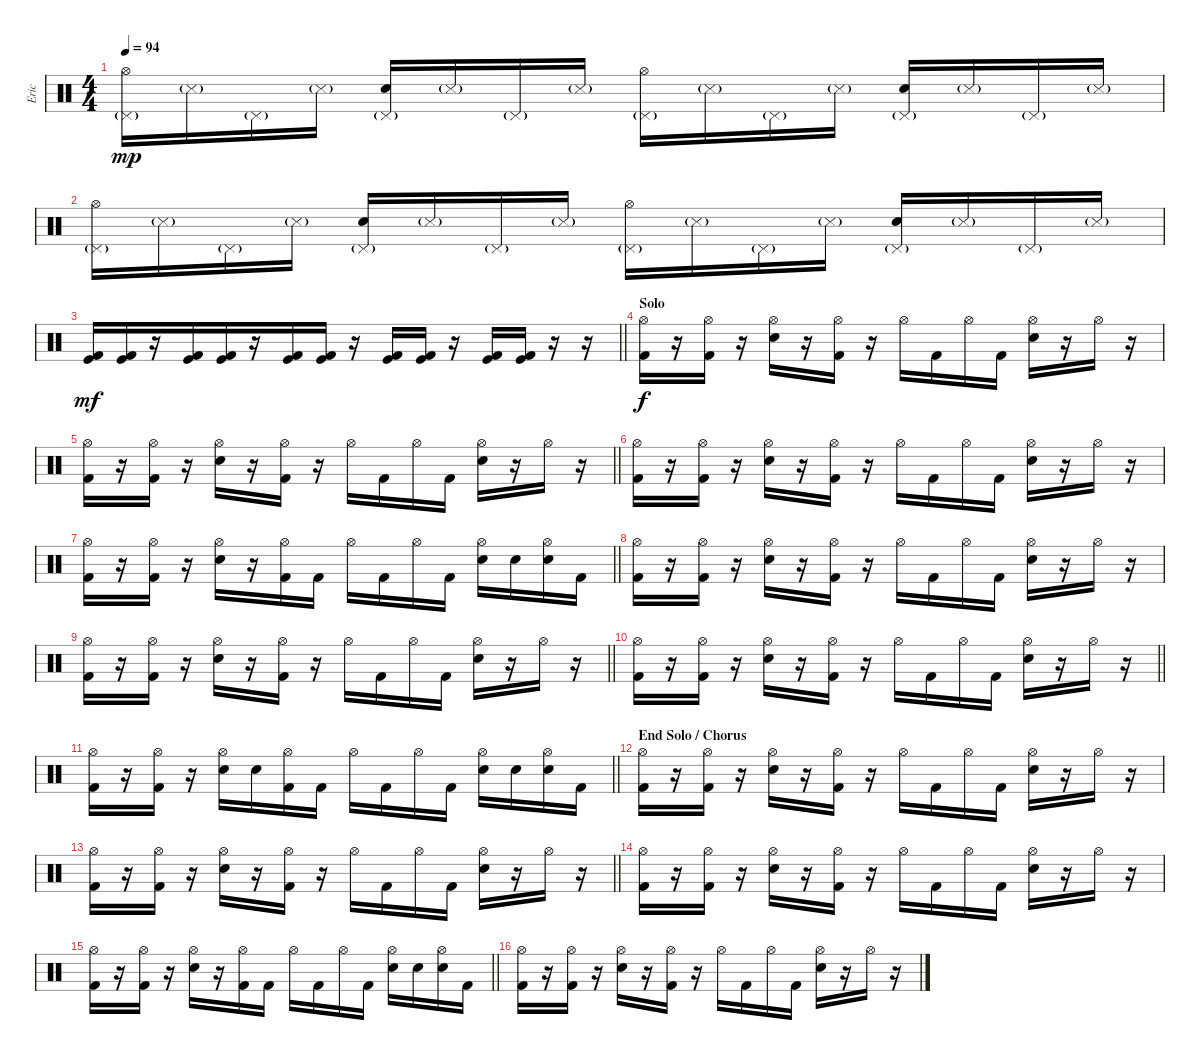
\track ("Eric" "Eric") {instrument percussion}
\staff {score}
\articulation defaults
\ts (4 4)
\tempo 94
\clef neutral
\ks c
("Pedal Hi-Hat (hit)"{g} "Hi-Hat (open)").16{dy mp} "Snare (side stick) 3"{g}.16 "Pedal Hi-Hat (hit)"{g}.16 "Snare (side stick) 3"{g}.16 ("Pedal Hi-Hat (hit)"{g} "Snare (hit) 2").16 "Snare (side stick) 3"{g}.16 "Pedal Hi-Hat (hit)"{g}.16 "Snare (side stick) 3"{g}.16 ("Pedal Hi-Hat (hit)"{g} "Hi-Hat (open)").16 "Snare (side stick) 3"{g}.16 "Pedal Hi-Hat (hit)"{g}.16 "Snare (side stick) 3"{g}.16 ("Pedal Hi-Hat (hit)"{g} "Snare (hit) 2").16 "Snare (side stick) 3"{g}.16 "Pedal Hi-Hat (hit)"{g}.16 "Snare (side stick) 3"{g}.16 |
("Pedal Hi-Hat (hit)"{g} "Hi-Hat (open)").16 "Snare (side stick) 3"{g}.16 "Pedal Hi-Hat (hit)"{g}.16 "Snare (side stick) 3"{g}.16 ("Pedal Hi-Hat (hit)"{g} "Snare (hit) 2").16 "Snare (side stick) 3"{g}.16 "Pedal Hi-Hat (hit)"{g}.16 "Snare (side stick) 3"{g}.16 ("Pedal Hi-Hat (hit)"{g} "Hi-Hat (open)").16 "Snare (side stick) 3"{g}.16 "Pedal Hi-Hat (hit)"{g}.16 "Snare (side stick) 3"{g}.16 ("Pedal Hi-Hat (hit)"{g} "Snare (hit) 2").16 "Snare (side stick) 3"{g}.16 "Pedal Hi-Hat (hit)"{g}.16 "Snare (side stick) 3"{g}.16 |
\barLineRight lightlight
("Kick (hit)" "Kick (hit) 2").16{dy mf} ("Kick (hit)" "Kick (hit) 2").16 r.16 ("Kick (hit)" "Kick (hit) 2").16{beam merge} ("Kick (hit)" "Kick (hit) 2").16 r.16 ("Kick (hit)" "Kick (hit) 2").16 ("Kick (hit)" "Kick (hit) 2").16 r.16 ("Kick (hit)" "Kick (hit) 2").16 ("Kick (hit)" "Kick (hit) 2").16 r.16 ("Kick (hit)" "Kick (hit) 2").16 ("Kick (hit)" "Kick (hit) 2").16 r.16 r.16 |
\section ("" "Solo")
("Hi-Hat (open)" "Kick (hit) 2").16{dy f} r.16 ("Hi-Hat (open)" "Kick (hit) 2").16 r.16 ("Hi-Hat (open)" "Electric Snare (hit)").16 r.16 ("Hi-Hat (open)" "Kick (hit) 2").16 r.16 "Hi-Hat (open)".16 "Kick (hit) 2".16 "Hi-Hat (open)".16 "Kick (hit) 2".16 ("Hi-Hat (open)" "Electric Snare (hit)").16 r.16 "Hi-Hat (open)".16 r.16 |
\barLineRight lightlight
("Hi-Hat (open)" "Kick (hit) 2").16 r.16 ("Hi-Hat (open)" "Kick (hit) 2").16 r.16 ("Hi-Hat (open)" "Electric Snare (hit)").16 r.16 ("Hi-Hat (open)" "Kick (hit) 2").16 r.16 "Hi-Hat (open)".16 "Kick (hit) 2".16 "Hi-Hat (open)".16 "Kick (hit) 2".16 ("Hi-Hat (open)" "Electric Snare (hit)").16 r.16 "Hi-Hat (open)".16 r.16 |
("Hi-Hat (open)" "Kick (hit) 2").16 r.16 ("Hi-Hat (open)" "Kick (hit) 2").16 r.16 ("Hi-Hat (open)" "Electric Snare (hit)").16 r.16 ("Hi-Hat (open)" "Kick (hit) 2").16 r.16 "Hi-Hat (open)".16 "Kick (hit) 2".16 "Hi-Hat (open)".16 "Kick (hit) 2".16 ("Hi-Hat (open)" "Electric Snare (hit)").16 r.16 "Hi-Hat (open)".16 r.16 |
\barLineRight lightlight
("Hi-Hat (open)" "Kick (hit) 2").16 r.16 ("Hi-Hat (open)" "Kick (hit) 2").16 r.16 ("Hi-Hat (open)" "Electric Snare (hit)").16 r.16 ("Hi-Hat (open)" "Kick (hit) 2").16 "Kick (hit) 2".16 "Hi-Hat (open)".16 "Kick (hit) 2".16 "Hi-Hat (open)".16 "Kick (hit) 2".16 ("Hi-Hat (open)" "Electric Snare (hit)").16 "Electric Snare (hit)".16 ("Hi-Hat (open)" "Electric Snare (hit)").16 "Kick (hit) 2".16 |
("Hi-Hat (open)" "Kick (hit) 2").16 r.16 ("Hi-Hat (open)" "Kick (hit) 2").16 r.16 ("Hi-Hat (open)" "Electric Snare (hit)").16 r.16 ("Hi-Hat (open)" "Kick (hit) 2").16 r.16 "Hi-Hat (open)".16 "Kick (hit) 2".16 "Hi-Hat (open)".16 "Kick (hit) 2".16 ("Hi-Hat (open)" "Electric Snare (hit)").16 r.16 "Hi-Hat (open)".16 r.16 |
\barLineRight lightlight
("Hi-Hat (open)" "Kick (hit) 2").16 r.16 ("Hi-Hat (open)" "Kick (hit) 2").16 r.16 ("Hi-Hat (open)" "Electric Snare (hit)").16 r.16 ("Hi-Hat (open)" "Kick (hit) 2").16 r.16 "Hi-Hat (open)".16 "Kick (hit) 2".16 "Hi-Hat (open)".16 "Kick (hit) 2".16 ("Hi-Hat (open)" "Electric Snare (hit)").16 r.16 "Hi-Hat (open)".16 r.16 |
\barLineRight lightlight
("Hi-Hat (open)" "Kick (hit) 2").16 r.16 ("Hi-Hat (open)" "Kick (hit) 2").16 r.16 ("Hi-Hat (open)" "Electric Snare (hit)").16 r.16 ("Hi-Hat (open)" "Kick (hit) 2").16 r.16 "Hi-Hat (open)".16 "Kick (hit) 2".16 "Hi-Hat (open)".16 "Kick (hit) 2".16 ("Hi-Hat (open)" "Electric Snare (hit)").16 r.16 "Hi-Hat (open)".16 r.16 |
\barLineRight lightlight
("Hi-Hat (open)" "Kick (hit) 2").16 r.16 ("Hi-Hat (open)" "Kick (hit) 2").16 r.16 ("Hi-Hat (open)" "Electric Snare (hit)").16 "Electric Snare (hit)".16 ("Hi-Hat (open)" "Kick (hit) 2").16 "Kick (hit) 2".16 "Hi-Hat (open)".16 "Kick (hit) 2".16 "Hi-Hat (open)".16 "Kick (hit) 2".16 ("Hi-Hat (open)" "Electric Snare (hit)").16 "Electric Snare (hit)".16 ("Hi-Hat (open)" "Electric Snare (hit)").16 "Kick (hit) 2".16 |
\section ("" "End Solo / Chorus")
("Hi-Hat (open)" "Kick (hit) 2").16 r.16 ("Hi-Hat (open)" "Kick (hit) 2").16 r.16 ("Hi-Hat (open)" "Electric Snare (hit)").16 r.16 ("Hi-Hat (open)" "Kick (hit) 2").16 r.16 "Hi-Hat (open)".16 "Kick (hit) 2".16 "Hi-Hat (open)".16 "Kick (hit) 2".16 ("Hi-Hat (open)" "Electric Snare (hit)").16 r.16 "Hi-Hat (open)".16 r.16 |
\barLineRight lightlight
("Hi-Hat (open)" "Kick (hit) 2").16 r.16 ("Hi-Hat (open)" "Kick (hit) 2").16 r.16 ("Hi-Hat (open)" "Electric Snare (hit)").16 r.16 ("Hi-Hat (open)" "Kick (hit) 2").16 r.16 "Hi-Hat (open)".16 "Kick (hit) 2".16 "Hi-Hat (open)".16 "Kick (hit) 2".16 ("Hi-Hat (open)" "Electric Snare (hit)").16 r.16 "Hi-Hat (open)".16 r.16 |
("Hi-Hat (open)" "Kick (hit) 2").16 r.16 ("Hi-Hat (open)" "Kick (hit) 2").16 r.16 ("Hi-Hat (open)" "Electric Snare (hit)").16 r.16 ("Hi-Hat (open)" "Kick (hit) 2").16 r.16 "Hi-Hat (open)".16 "Kick (hit) 2".16 "Hi-Hat (open)".16 "Kick (hit) 2".16 ("Hi-Hat (open)" "Electric Snare (hit)").16 r.16 "Hi-Hat (open)".16 r.16 |
\barLineRight lightlight
("Hi-Hat (open)" "Kick (hit) 2").16 r.16 ("Hi-Hat (open)" "Kick (hit) 2").16 r.16 ("Hi-Hat (open)" "Electric Snare (hit)").16 r.16 ("Hi-Hat (open)" "Kick (hit) 2").16 "Kick (hit) 2".16 "Hi-Hat (open)".16 "Kick (hit) 2".16 "Hi-Hat (open)".16 "Kick (hit) 2".16 ("Hi-Hat (open)" "Electric Snare (hit)").16 "Electric Snare (hit)".16 ("Hi-Hat (open)" "Electric Snare (hit)").16 "Kick (hit) 2".16 |
("Hi-Hat (open)" "Kick (hit) 2").16 r.16 ("Hi-Hat (open)" "Kick (hit) 2").16 r.16 ("Hi-Hat (open)" "Electric Snare (hit)").16 r.16 ("Hi-Hat (open)" "Kick (hit) 2").16 r.16 "Hi-Hat (open)".16 "Kick (hit) 2".16 "Hi-Hat (open)".16 "Kick (hit) 2".16 ("Hi-Hat (open)" "Electric Snare (hit)").16 r.16 "Hi-Hat (open)".16 r.16
